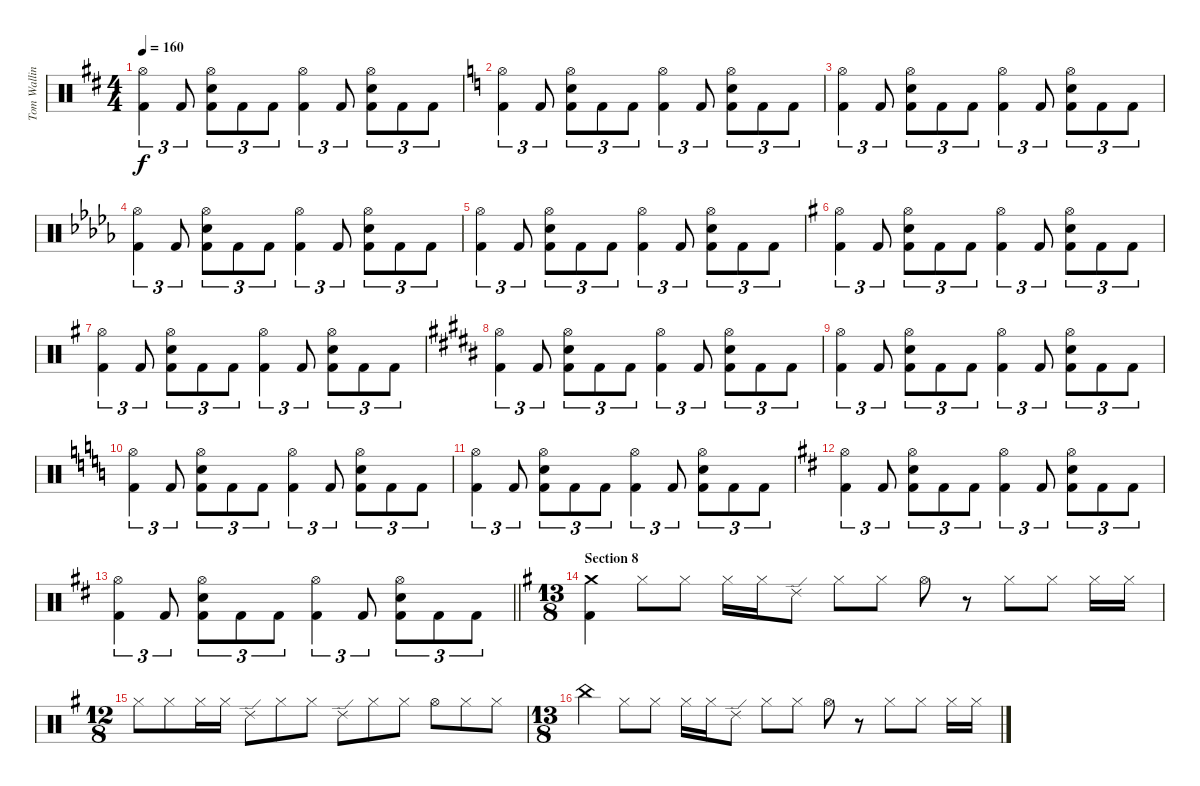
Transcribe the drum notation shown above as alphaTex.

\track ("Tom Walling (drums)" "Tom Wallin") {instrument percussion}
\staff {score}
\articulation defaults
\ts (4 4)
\tempo 160
\clef neutral
\ks bminor
("Hi-Hat (open)" "Kick (hit) 2").4{tu (3 2) dy f} "Kick (hit) 2".8{tu (3 2)} ("Hi-Hat (open)" "Electric Snare (hit)" "Kick (hit) 2").8{tu (3 2)} "Kick (hit) 2".8{tu (3 2)} "Kick (hit) 2".8{tu (3 2)} ("Hi-Hat (open)" "Kick (hit) 2").4{tu (3 2)} "Kick (hit) 2".8{tu (3 2)} ("Hi-Hat (open)" "Electric Snare (hit)" "Kick (hit) 2").8{tu (3 2)} "Kick (hit) 2".8{tu (3 2)} "Kick (hit) 2".8{tu (3 2)} |
\ks aminor
("Hi-Hat (open)" "Kick (hit) 2").4{tu (3 2)} "Kick (hit) 2".8{tu (3 2)} ("Hi-Hat (open)" "Electric Snare (hit)" "Kick (hit) 2").8{tu (3 2)} "Kick (hit) 2".8{tu (3 2)} "Kick (hit) 2".8{tu (3 2)} ("Hi-Hat (open)" "Kick (hit) 2").4{tu (3 2)} "Kick (hit) 2".8{tu (3 2)} ("Hi-Hat (open)" "Electric Snare (hit)" "Kick (hit) 2").8{tu (3 2)} "Kick (hit) 2".8{tu (3 2)} "Kick (hit) 2".8{tu (3 2)} |
("Hi-Hat (open)" "Kick (hit) 2").4{tu (3 2)} "Kick (hit) 2".8{tu (3 2)} ("Hi-Hat (open)" "Electric Snare (hit)" "Kick (hit) 2").8{tu (3 2)} "Kick (hit) 2".8{tu (3 2)} "Kick (hit) 2".8{tu (3 2)} ("Hi-Hat (open)" "Kick (hit) 2").4{tu (3 2)} "Kick (hit) 2".8{tu (3 2)} ("Hi-Hat (open)" "Electric Snare (hit)" "Kick (hit) 2").8{tu (3 2)} "Kick (hit) 2".8{tu (3 2)} "Kick (hit) 2".8{tu (3 2)} |
\ks bbminor
("Hi-Hat (open)" "Kick (hit) 2").4{tu (3 2)} "Kick (hit) 2".8{tu (3 2)} ("Hi-Hat (open)" "Electric Snare (hit)" "Kick (hit) 2").8{tu (3 2)} "Kick (hit) 2".8{tu (3 2)} "Kick (hit) 2".8{tu (3 2)} ("Hi-Hat (open)" "Kick (hit) 2").4{tu (3 2)} "Kick (hit) 2".8{tu (3 2)} ("Hi-Hat (open)" "Electric Snare (hit)" "Kick (hit) 2").8{tu (3 2)} "Kick (hit) 2".8{tu (3 2)} "Kick (hit) 2".8{tu (3 2)} |
("Hi-Hat (open)" "Kick (hit) 2").4{tu (3 2)} "Kick (hit) 2".8{tu (3 2)} ("Hi-Hat (open)" "Electric Snare (hit)" "Kick (hit) 2").8{tu (3 2)} "Kick (hit) 2".8{tu (3 2)} "Kick (hit) 2".8{tu (3 2)} ("Hi-Hat (open)" "Kick (hit) 2").4{tu (3 2)} "Kick (hit) 2".8{tu (3 2)} ("Hi-Hat (open)" "Electric Snare (hit)" "Kick (hit) 2").8{tu (3 2)} "Kick (hit) 2".8{tu (3 2)} "Kick (hit) 2".8{tu (3 2)} |
\ks eminor
("Hi-Hat (open)" "Kick (hit) 2").4{tu (3 2)} "Kick (hit) 2".8{tu (3 2)} ("Hi-Hat (open)" "Electric Snare (hit)" "Kick (hit) 2").8{tu (3 2)} "Kick (hit) 2".8{tu (3 2)} "Kick (hit) 2".8{tu (3 2)} ("Hi-Hat (open)" "Kick (hit) 2").4{tu (3 2)} "Kick (hit) 2".8{tu (3 2)} ("Hi-Hat (open)" "Electric Snare (hit)" "Kick (hit) 2").8{tu (3 2)} "Kick (hit) 2".8{tu (3 2)} "Kick (hit) 2".8{tu (3 2)} |
("Hi-Hat (open)" "Kick (hit) 2").4{tu (3 2)} "Kick (hit) 2".8{tu (3 2)} ("Hi-Hat (open)" "Electric Snare (hit)" "Kick (hit) 2").8{tu (3 2)} "Kick (hit) 2".8{tu (3 2)} "Kick (hit) 2".8{tu (3 2)} ("Hi-Hat (open)" "Kick (hit) 2").4{tu (3 2)} "Kick (hit) 2".8{tu (3 2)} ("Hi-Hat (open)" "Electric Snare (hit)" "Kick (hit) 2").8{tu (3 2)} "Kick (hit) 2".8{tu (3 2)} "Kick (hit) 2".8{tu (3 2)} |
\ks g#minor
("Hi-Hat (open)" "Kick (hit) 2").4{tu (3 2)} "Kick (hit) 2".8{tu (3 2)} ("Hi-Hat (open)" "Electric Snare (hit)" "Kick (hit) 2").8{tu (3 2)} "Kick (hit) 2".8{tu (3 2)} "Kick (hit) 2".8{tu (3 2)} ("Hi-Hat (open)" "Kick (hit) 2").4{tu (3 2)} "Kick (hit) 2".8{tu (3 2)} ("Hi-Hat (open)" "Electric Snare (hit)" "Kick (hit) 2").8{tu (3 2)} "Kick (hit) 2".8{tu (3 2)} "Kick (hit) 2".8{tu (3 2)} |
("Hi-Hat (open)" "Kick (hit) 2").4{tu (3 2)} "Kick (hit) 2".8{tu (3 2)} ("Hi-Hat (open)" "Electric Snare (hit)" "Kick (hit) 2").8{tu (3 2)} "Kick (hit) 2".8{tu (3 2)} "Kick (hit) 2".8{tu (3 2)} ("Hi-Hat (open)" "Kick (hit) 2").4{tu (3 2)} "Kick (hit) 2".8{tu (3 2)} ("Hi-Hat (open)" "Electric Snare (hit)" "Kick (hit) 2").8{tu (3 2)} "Kick (hit) 2".8{tu (3 2)} "Kick (hit) 2".8{tu (3 2)} |
\ks aminor
("Hi-Hat (open)" "Kick (hit) 2").4{tu (3 2)} "Kick (hit) 2".8{tu (3 2)} ("Hi-Hat (open)" "Electric Snare (hit)" "Kick (hit) 2").8{tu (3 2)} "Kick (hit) 2".8{tu (3 2)} "Kick (hit) 2".8{tu (3 2)} ("Hi-Hat (open)" "Kick (hit) 2").4{tu (3 2)} "Kick (hit) 2".8{tu (3 2)} ("Hi-Hat (open)" "Electric Snare (hit)" "Kick (hit) 2").8{tu (3 2)} "Kick (hit) 2".8{tu (3 2)} "Kick (hit) 2".8{tu (3 2)} |
("Hi-Hat (open)" "Kick (hit) 2").4{tu (3 2)} "Kick (hit) 2".8{tu (3 2)} ("Hi-Hat (open)" "Electric Snare (hit)" "Kick (hit) 2").8{tu (3 2)} "Kick (hit) 2".8{tu (3 2)} "Kick (hit) 2".8{tu (3 2)} ("Hi-Hat (open)" "Kick (hit) 2").4{tu (3 2)} "Kick (hit) 2".8{tu (3 2)} ("Hi-Hat (open)" "Electric Snare (hit)" "Kick (hit) 2").8{tu (3 2)} "Kick (hit) 2".8{tu (3 2)} "Kick (hit) 2".8{tu (3 2)} |
\ks bminor
("Hi-Hat (open)" "Kick (hit) 2").4{tu (3 2)} "Kick (hit) 2".8{tu (3 2)} ("Hi-Hat (open)" "Electric Snare (hit)" "Kick (hit) 2").8{tu (3 2)} "Kick (hit) 2".8{tu (3 2)} "Kick (hit) 2".8{tu (3 2)} ("Hi-Hat (open)" "Kick (hit) 2").4{tu (3 2)} "Kick (hit) 2".8{tu (3 2)} ("Hi-Hat (open)" "Electric Snare (hit)" "Kick (hit) 2").8{tu (3 2)} "Kick (hit) 2".8{tu (3 2)} "Kick (hit) 2".8{tu (3 2)} |
\barLineRight lightlight
("Hi-Hat (open)" "Kick (hit) 2").4{tu (3 2)} "Kick (hit) 2".8{tu (3 2)} ("Hi-Hat (open)" "Electric Snare (hit)" "Kick (hit) 2").8{tu (3 2)} "Kick (hit) 2".8{tu (3 2)} "Kick (hit) 2".8{tu (3 2)} ("Hi-Hat (open)" "Kick (hit) 2").4{tu (3 2)} "Kick (hit) 2".8{tu (3 2)} ("Hi-Hat (open)" "Electric Snare (hit)" "Kick (hit) 2").8{tu (3 2)} "Kick (hit) 2".8{tu (3 2)} "Kick (hit) 2".8{tu (3 2)} |
\ts (13 8)
\section ("" "Section 8")
\ks eminor
("Crash medium (hit)" "Kick (hit) 2").4 "Hi-Hat (closed)".8 "Hi-Hat (closed)".8 "Hi-Hat (closed)".16 "Hi-Hat (closed)".16 "Ride (edge) 2".8 "Hi-Hat (closed)".8 "Hi-Hat (closed)".8 "Hi-Hat (open)".8 r.8 "Hi-Hat (closed)".8 "Hi-Hat (closed)".8 "Hi-Hat (closed)".16 "Hi-Hat (closed)".16 |
\ts (12 8)
"Hi-Hat (closed)".8 "Hi-Hat (closed)".8 "Hi-Hat (closed)".16 "Hi-Hat (closed)".16 "Ride (edge) 2".8 "Hi-Hat (closed)".8 "Hi-Hat (closed)".8 "Ride (edge) 2".8 "Hi-Hat (closed)".8 "Hi-Hat (closed)".8 "Hi-Hat (open)".8 "Hi-Hat (closed)".8 "Hi-Hat (closed)".8 |
\ts (13 8)
"China (hit)".4 "Hi-Hat (closed)".8 "Hi-Hat (closed)".8 "Hi-Hat (closed)".16 "Hi-Hat (closed)".16 "Ride (edge) 2".8 "Hi-Hat (closed)".8 "Hi-Hat (closed)".8 "Hi-Hat (open)".8 r.8 "Hi-Hat (closed)".8 "Hi-Hat (closed)".8 "Hi-Hat (closed)".16 "Hi-Hat (closed)".16
